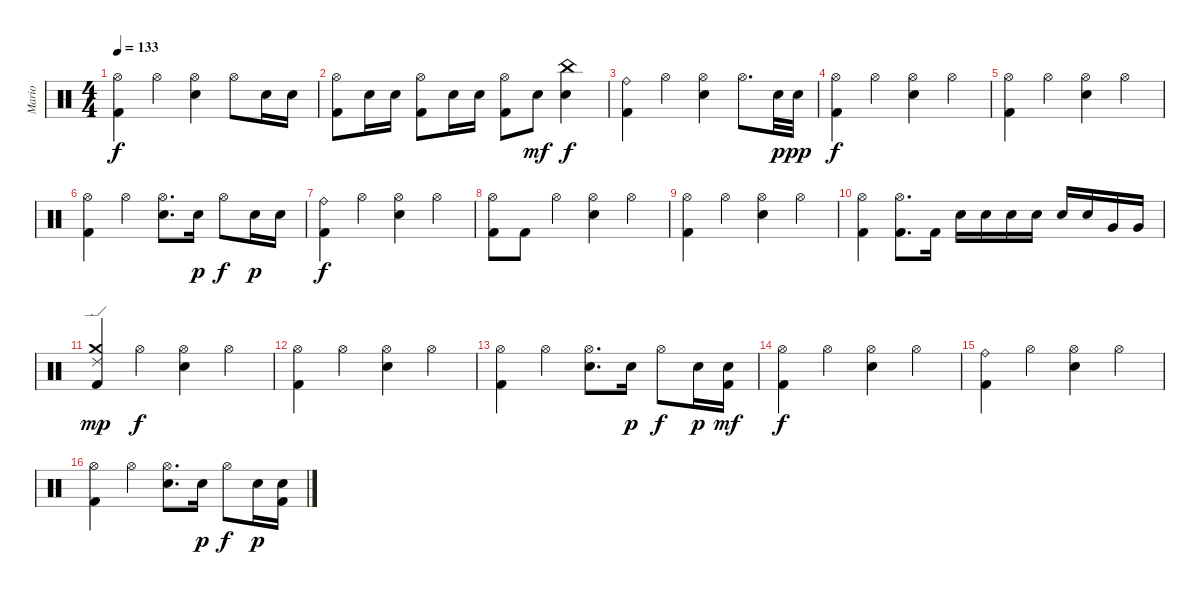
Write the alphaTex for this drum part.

\track ("Mario" "Mario") {instrument percussion}
\staff {score}
\articulation defaults
\ts (4 4)
\tempo 133
\clef neutral
\ks c
("Hi-Hat (open)" "Kick (hit) 2").4{dy f} "Hi-Hat (open)".4 ("Hi-Hat (open)" "Electric Snare (hit)").4 "Hi-Hat (open)".8 "Electric Snare (hit)".16 "Electric Snare (hit)".16 |
("Hi-Hat (open)" "Kick (hit) 2").8 "Electric Snare (hit)".16 "Electric Snare (hit)".16 ("Hi-Hat (open)" "Kick (hit) 2").8 "Electric Snare (hit)".16 "Electric Snare (hit)".16 ("Hi-Hat (open)" "Kick (hit) 2").8 "Electric Snare (hit)".8{dy mf} ("China (hit)" "Electric Snare (hit)").4{dy f} |
("Ride (bell)" "Kick (hit) 2").4 "Hi-Hat (open)".4 ("Hi-Hat (open)" "Electric Snare (hit)").4 "Hi-Hat (open)".8{d} "Electric Snare (hit)".32{dy p} "Electric Snare (hit)".32{dy pp} |
("Hi-Hat (open)" "Kick (hit) 2").4{dy f} "Hi-Hat (open)".4 ("Hi-Hat (open)" "Electric Snare (hit)").4 "Hi-Hat (open)".4 |
("Hi-Hat (open)" "Kick (hit) 2").4 "Hi-Hat (open)".4 ("Hi-Hat (open)" "Electric Snare (hit)").4 "Hi-Hat (open)".4 |
("Hi-Hat (open)" "Kick (hit) 2").4 "Hi-Hat (open)".4 ("Hi-Hat (open)" "Electric Snare (hit)").8{d} "Electric Snare (hit)".16{dy p} "Hi-Hat (open)".8{dy f} "Electric Snare (hit)".16{dy p} "Electric Snare (hit)".16 |
("Ride (bell)" "Kick (hit) 2").4{dy f} "Hi-Hat (open)".4 ("Hi-Hat (open)" "Electric Snare (hit)").4 "Hi-Hat (open)".4 |
("Hi-Hat (open)" "Kick (hit) 2").8 "Kick (hit) 2".8 "Hi-Hat (open)".4 ("Hi-Hat (open)" "Electric Snare (hit)").4 "Hi-Hat (open)".4 |
("Hi-Hat (open)" "Kick (hit) 2").4 "Hi-Hat (open)".4 ("Hi-Hat (open)" "Electric Snare (hit)").4 "Hi-Hat (open)".4 |
("Hi-Hat (open)" "Kick (hit) 2").4 ("Hi-Hat (open)" "Kick (hit) 2").8{d} "Kick (hit) 2".16 "Electric Snare (hit)".16 "Electric Snare (hit)".16 "Electric Snare (hit)".16 "Electric Snare (hit)".16 "Electric Snare (hit)".16 "Electric Snare (hit)".16 "Very Low Tom (hit)".16 "Very Low Tom (hit)".16 |
("Crash medium (hit)" "Ride (edge) 2" "Kick (hit) 2").4{dy mp} "Hi-Hat (open)".4{dy f} ("Hi-Hat (open)" "Electric Snare (hit)").4 "Hi-Hat (open)".4 |
("Hi-Hat (open)" "Kick (hit) 2").4 "Hi-Hat (open)".4 ("Hi-Hat (open)" "Electric Snare (hit)").4 "Hi-Hat (open)".4 |
("Hi-Hat (open)" "Kick (hit) 2").4 "Hi-Hat (open)".4 ("Hi-Hat (open)" "Electric Snare (hit)").8{d} "Electric Snare (hit)".16{dy p} "Hi-Hat (open)".8{dy f} "Electric Snare (hit)".16{dy p} ("Electric Snare (hit)" "Kick (hit) 2").16{dy mf} |
("Hi-Hat (open)" "Kick (hit) 2").4{dy f} "Hi-Hat (open)".4 ("Hi-Hat (open)" "Electric Snare (hit)").4 "Hi-Hat (open)".4 |
("Ride (bell)" "Kick (hit) 2").4 "Hi-Hat (open)".4 ("Hi-Hat (open)" "Electric Snare (hit)").4 "Hi-Hat (open)".4 |
("Hi-Hat (open)" "Kick (hit) 2").4 "Hi-Hat (open)".4 ("Hi-Hat (open)" "Electric Snare (hit)").8{d} "Electric Snare (hit)".16{dy p} "Hi-Hat (open)".8{dy f} "Electric Snare (hit)".16{dy p} ("Electric Snare (hit)" "Kick (hit) 2").16
